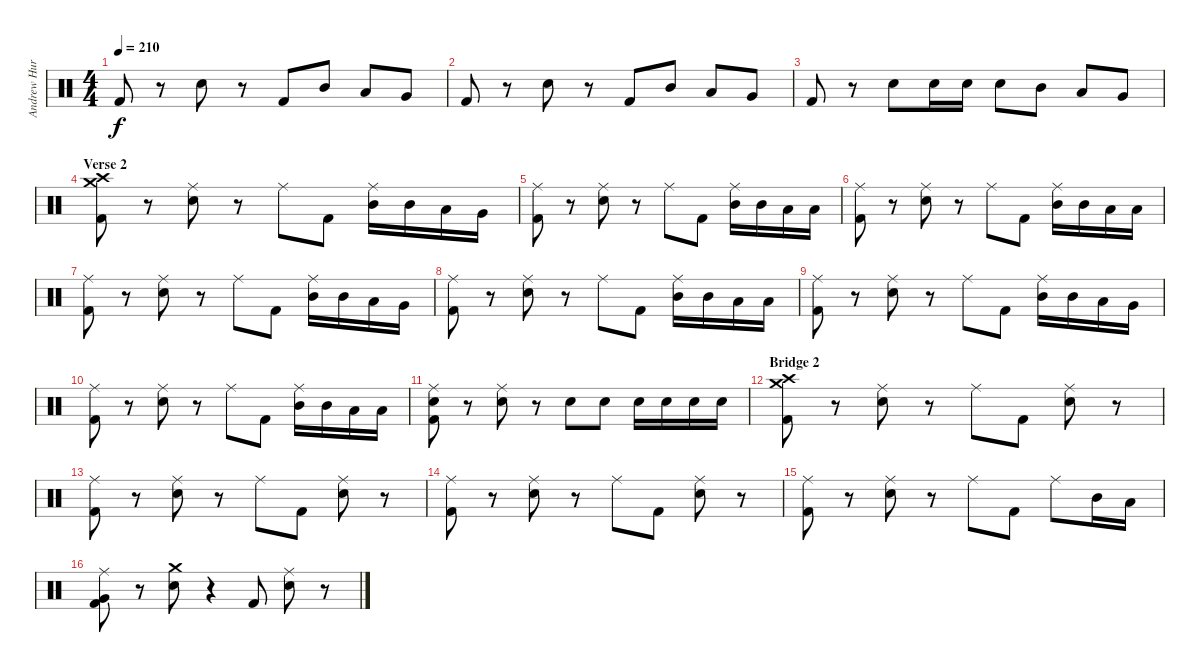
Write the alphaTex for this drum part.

\track ("Andrew Hurley (Drums)" "Andrew Hur") {instrument percussion}
\staff {score}
\articulation defaults
\ts (4 4)
\tempo 210
\clef neutral
\ks c "Kick (hit) 2".8{dy f}
r.8 "Electric Snare (hit)".8 r.8 "Kick (hit) 2".8 "Mid Tom (hit)".8 "Low Tom (hit)".8 "Very Low Tom (hit)".8 |
"Kick (hit) 2".8 r.8 "Electric Snare (hit)".8 r.8 "Kick (hit) 2".8 "Mid Tom (hit)".8 "Low Tom (hit)".8 "Very Low Tom (hit)".8 |
"Kick (hit) 2".8 r.8 "Electric Snare (hit)".8 "Electric Snare (hit)".16 "Electric Snare (hit)".16 "Electric Snare (hit)".8 "Mid Tom (hit)".8 "Low Tom (hit)".8 "Very Low Tom (hit)".8 |
\section ("" "Verse 2")
("Crash medium (hit)" "Crash high (hit)" "Kick (hit) 2").8 r.8 ("Ride (middle)" "Electric Snare (hit)").8 r.8 "Ride (middle)".8 "Kick (hit) 2".8 ("Ride (middle)" "Mid Tom (hit)").16 "Mid Tom (hit)".16 "Low Tom (hit)".16 "Very Low Tom (hit)".16 |
("Ride (middle)" "Kick (hit) 2").8 r.8 ("Ride (middle)" "Electric Snare (hit)").8 r.8 "Ride (middle)".8 "Kick (hit) 2".8 ("Ride (middle)" "Mid Tom (hit)").16 "Mid Tom (hit)".16 "Low Tom (hit)".16 "Low Tom (hit)".16 |
("Ride (middle)" "Kick (hit) 2").8 r.8 ("Ride (middle)" "Electric Snare (hit)").8 r.8 "Ride (middle)".8 "Kick (hit) 2".8 ("Ride (middle)" "Mid Tom (hit)").16 "Mid Tom (hit)".16 "Low Tom (hit)".16 "Low Tom (hit)".16 |
("Ride (middle)" "Kick (hit) 2").8 r.8 ("Ride (middle)" "Electric Snare (hit)").8 r.8 "Ride (middle)".8 "Kick (hit) 2".8 ("Ride (middle)" "Mid Tom (hit)").16 "Mid Tom (hit)".16 "Low Tom (hit)".16 "Very Low Tom (hit)".16 |
("Ride (middle)" "Kick (hit) 2").8 r.8 ("Ride (middle)" "Electric Snare (hit)").8 r.8 "Ride (middle)".8 "Kick (hit) 2".8 ("Ride (middle)" "Mid Tom (hit)").16 "Mid Tom (hit)".16 "Low Tom (hit)".16 "Low Tom (hit)".16 |
("Ride (middle)" "Kick (hit) 2").8 r.8 ("Ride (middle)" "Electric Snare (hit)").8 r.8 "Ride (middle)".8 "Kick (hit) 2".8 ("Ride (middle)" "Mid Tom (hit)").16 "Mid Tom (hit)".16 "Low Tom (hit)".16 "Very Low Tom (hit)".16 |
("Ride (middle)" "Kick (hit) 2").8 r.8 ("Ride (middle)" "Electric Snare (hit)").8 r.8 "Ride (middle)".8 "Kick (hit) 2".8 ("Ride (middle)" "Mid Tom (hit)").16 "Mid Tom (hit)".16 "Low Tom (hit)".16 "Low Tom (hit)".16 |
("Ride (middle)" "Electric Snare (hit)" "Kick (hit) 2").8 r.8 ("Ride (middle)" "Electric Snare (hit)").8 r.8 "Electric Snare (hit)".8 "Electric Snare (hit)".8 "Electric Snare (hit)".16 "Electric Snare (hit)".16 "Electric Snare (hit)".16 "Electric Snare (hit)".16 |
\section ("" "Bridge 2")
("Crash medium (hit)" "Crash high (hit)" "Kick (hit) 2").8 r.8 ("Ride (middle)" "Electric Snare (hit)").8 r.8 "Ride (middle)".8 "Kick (hit) 2".8 ("Ride (middle)" "Electric Snare (hit)").8 r.8 |
("Ride (middle)" "Kick (hit) 2").8 r.8 ("Ride (middle)" "Electric Snare (hit)").8 r.8 "Ride (middle)".8 "Kick (hit) 2".8 ("Ride (middle)" "Electric Snare (hit)").8 r.8 |
("Ride (middle)" "Kick (hit) 2").8 r.8 ("Ride (middle)" "Electric Snare (hit)").8 r.8 "Ride (middle)".8 "Kick (hit) 2".8 ("Ride (middle)" "Electric Snare (hit)").8 r.8 |
("Ride (middle)" "Kick (hit) 2").8 r.8 ("Ride (middle)" "Electric Snare (hit)").8 r.8 "Ride (middle)".8 "Kick (hit) 2".8 "Ride (middle)".8 "Mid Tom (hit)".16 "Low Tom (hit)".16 |
("Ride (middle)" "Very Low Tom (hit)" "Kick (hit) 2").8 r.8 ("Crash medium (hit)" "Electric Snare (hit)").8 r.4 "Kick (hit) 2".8 ("Ride (middle)" "Electric Snare (hit)").8 r.8
